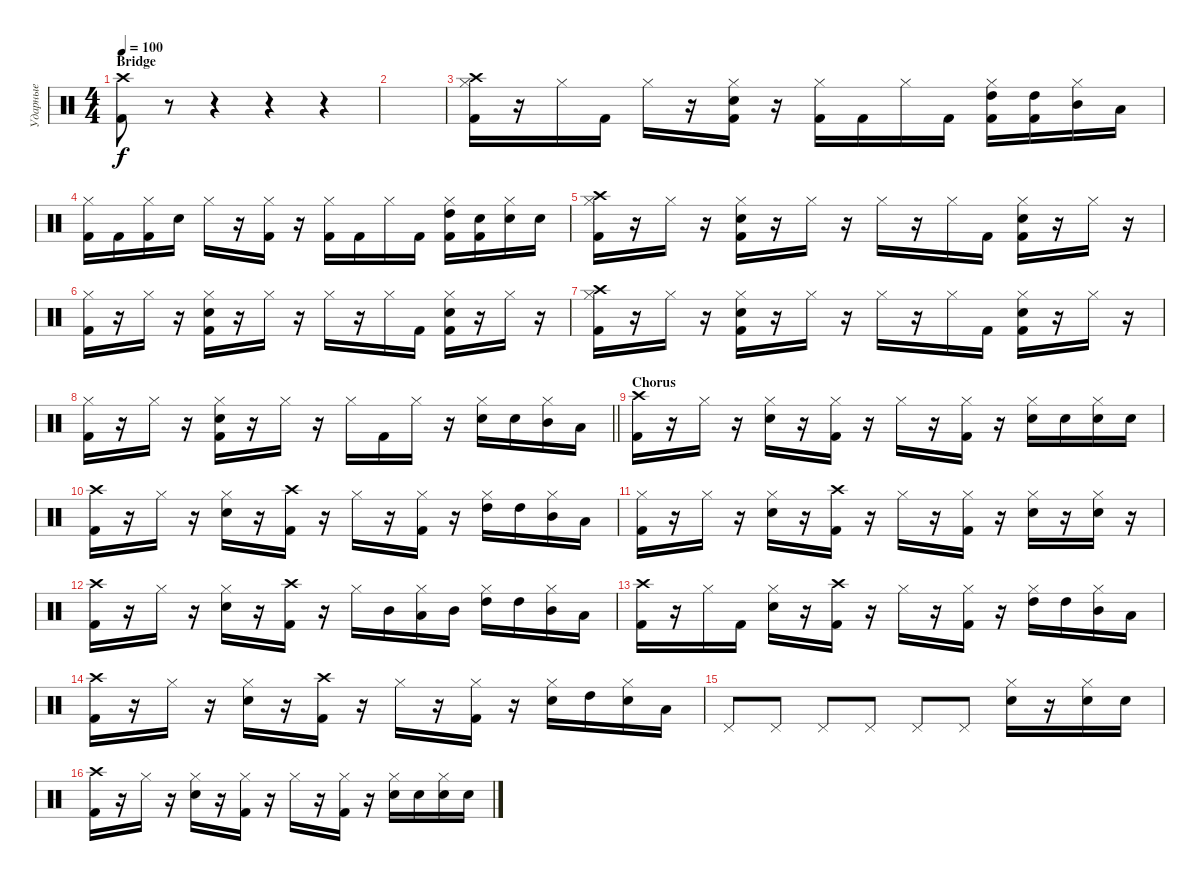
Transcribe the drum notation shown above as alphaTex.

\track ("Ударные" "Ударные") {instrument percussion}
\staff {score}
\articulation defaults
\ts (4 4)
\section ("" "Bridge")
\tempo 100
\clef neutral
\ks c
("Kick (hit) 2" "Crash high (hit)").8{dy f} r.8 r.4 r.4 r.4 |
|
("Hi-Hat (closed)" "Crash high (hit)" "Kick (hit) 2").16 r.16 "Hi-Hat (closed)".16 "Kick (hit) 2".16 "Hi-Hat (closed)".16 r.16 ("Hi-Hat (closed)" "Kick (hit) 2" "Electric Snare (hit)").16 r.16 ("Hi-Hat (closed)" "Kick (hit) 2").16 "Kick (hit) 2".16 "Hi-Hat (closed)".16 "Kick (hit) 2".16 ("Hi-Hat (closed)" "Kick (hit) 2" "High Tom (hit)").16 ("Kick (hit) 2" "High Tom (hit)").16 ("Hi-Hat (closed)" "Mid Tom (hit)").16 "Low Tom (hit)".16 |
("Hi-Hat (closed)" "Kick (hit) 2").16 "Kick (hit) 2".16 ("Hi-Hat (closed)" "Kick (hit) 2").16 "Electric Snare (hit)".16 "Hi-Hat (closed)".16 r.16 ("Hi-Hat (closed)" "Kick (hit) 2").16 r.16 ("Hi-Hat (closed)" "Kick (hit) 2").16 "Kick (hit) 2".16 "Hi-Hat (closed)".16 "Kick (hit) 2".16 ("Hi-Hat (closed)" "Kick (hit) 2" "High Tom (hit)").16 ("Kick (hit) 2" "Electric Snare (hit)").16 ("Hi-Hat (closed)" "Electric Snare (hit)").16 "Electric Snare (hit)".16 |
("Hi-Hat (closed)" "Kick (hit) 2" "Crash high (hit)").16 r.16 "Hi-Hat (closed)".16 r.16 ("Hi-Hat (closed)" "Kick (hit) 2" "Electric Snare (hit)").16 r.16 "Hi-Hat (closed)".16 r.16 "Hi-Hat (closed)".16 r.16 "Hi-Hat (closed)".16 "Kick (hit) 2".16 ("Hi-Hat (closed)" "Kick (hit) 2" "Electric Snare (hit)").16 r.16 "Hi-Hat (closed)".16 r.16 |
("Hi-Hat (closed)" "Kick (hit) 2").16 r.16 "Hi-Hat (closed)".16 r.16 ("Hi-Hat (closed)" "Kick (hit) 2" "Electric Snare (hit)").16 r.16 "Hi-Hat (closed)".16 r.16 "Hi-Hat (closed)".16 r.16 "Hi-Hat (closed)".16 "Kick (hit) 2".16 ("Hi-Hat (closed)" "Kick (hit) 2" "Electric Snare (hit)").16 r.16 "Hi-Hat (closed)".16 r.16 |
("Hi-Hat (closed)" "Kick (hit) 2" "Crash high (hit)").16 r.16 "Hi-Hat (closed)".16 r.16 ("Hi-Hat (closed)" "Kick (hit) 2" "Electric Snare (hit)").16 r.16 "Hi-Hat (closed)".16 r.16 "Hi-Hat (closed)".16 r.16 "Hi-Hat (closed)".16 "Kick (hit) 2".16 ("Hi-Hat (closed)" "Kick (hit) 2" "Electric Snare (hit)").16 r.16 "Hi-Hat (closed)".16 r.16 |
\barLineRight lightlight
("Hi-Hat (closed)" "Kick (hit) 2").16 r.16 "Hi-Hat (closed)".16 r.16 ("Hi-Hat (closed)" "Kick (hit) 2" "Electric Snare (hit)").16 r.16 "Hi-Hat (closed)".16 r.16 "Hi-Hat (closed)".16 "Kick (hit) 2".16 "Hi-Hat (closed)".16 r.16 ("Hi-Hat (closed)" "Electric Snare (hit)").16 "Electric Snare (hit)".16 ("Hi-Hat (closed)" "Mid Tom (hit)").16 "Low Tom (hit)".16 |
\section ("" "Chorus")
("Crash high (hit)" "Kick (hit) 2").16 r.16 "Hi-Hat (closed)".16 r.16 ("Hi-Hat (closed)" "Electric Snare (hit)").16 r.16 ("Hi-Hat (closed)" "Kick (hit) 2").16 r.16 "Hi-Hat (closed)".16 r.16 ("Hi-Hat (closed)" "Kick (hit) 2").16 r.16 ("Hi-Hat (closed)" "Electric Snare (hit)").16 "Electric Snare (hit)".16 ("Hi-Hat (closed)" "Electric Snare (hit)").16 "Electric Snare (hit)".16 |
("Crash high (hit)" "Kick (hit) 2").16 r.16 "Hi-Hat (closed)".16 r.16 ("Hi-Hat (closed)" "Electric Snare (hit)").16 r.16 ("Crash high (hit)" "Kick (hit) 2").16 r.16 "Hi-Hat (closed)".16 r.16 ("Hi-Hat (closed)" "Kick (hit) 2").16 r.16 ("Hi-Hat (closed)" "High Tom (hit)").16 "High Tom (hit)".16 ("Hi-Hat (closed)" "Mid Tom (hit)").16 "Low Tom (hit)".16 |
("Hi-Hat (closed)" "Kick (hit) 2").16 r.16 "Hi-Hat (closed)".16 r.16 ("Hi-Hat (closed)" "Electric Snare (hit)").16 r.16 ("Crash high (hit)" "Kick (hit) 2").16 r.16 "Hi-Hat (closed)".16 r.16 ("Hi-Hat (closed)" "Kick (hit) 2").16 r.16 ("Hi-Hat (closed)" "Electric Snare (hit)").16 r.16 ("Hi-Hat (closed)" "Electric Snare (hit)").16 r.16 |
("Crash high (hit)" "Kick (hit) 2").16 r.16 "Hi-Hat (closed)".16 r.16 ("Hi-Hat (closed)" "Electric Snare (hit)").16 r.16 ("Crash high (hit)" "Kick (hit) 2").16 r.16 "Hi-Hat (closed)".16 "Mid Tom (hit)".16 ("Hi-Hat (closed)" "Low Tom (hit)").16 "Mid Tom (hit)".16 ("Hi-Hat (closed)" "High Tom (hit)").16 "High Tom (hit)".16 ("Hi-Hat (closed)" "Mid Tom (hit)").16 "Low Tom (hit)".16 |
("Crash high (hit)" "Kick (hit) 2").16 r.16 "Hi-Hat (closed)".16 "Kick (hit) 2".16 ("Hi-Hat (closed)" "Electric Snare (hit)").16 r.16 ("Crash high (hit)" "Kick (hit) 2").16 r.16 "Hi-Hat (closed)".16 r.16 ("Hi-Hat (closed)" "Kick (hit) 2").16 r.16 ("Hi-Hat (closed)" "High Tom (hit)").16 "High Tom (hit)".16 ("Hi-Hat (closed)" "Mid Tom (hit)").16 "Low Tom (hit)".16 |
("Crash high (hit)" "Kick (hit) 2").16 r.16 "Hi-Hat (closed)".16 r.16 ("Hi-Hat (closed)" "Electric Snare (hit)").16 r.16 ("Crash high (hit)" "Kick (hit) 2").16 r.16 "Hi-Hat (closed)".16 r.16 ("Hi-Hat (closed)" "Kick (hit) 2").16 r.16 ("Hi-Hat (closed)" "Electric Snare (hit)").16 "High Tom (hit)".16 ("Hi-Hat (closed)" "Electric Snare (hit)").16 "Low Tom (hit)".16 |
"Pedal Hi-Hat (hit)".8 "Pedal Hi-Hat (hit)".8 "Pedal Hi-Hat (hit)".8 "Pedal Hi-Hat (hit)".8 "Pedal Hi-Hat (hit)".8 "Pedal Hi-Hat (hit)".8 ("Hi-Hat (closed)" "Electric Snare (hit)").16 r.16 ("Hi-Hat (closed)" "Electric Snare (hit)").16 "Electric Snare (hit)".16 |
("Crash high (hit)" "Kick (hit) 2").16 r.16 "Hi-Hat (closed)".16 r.16 ("Hi-Hat (closed)" "Electric Snare (hit)").16 r.16 ("Hi-Hat (closed)" "Kick (hit) 2").16 r.16 "Hi-Hat (closed)".16 r.16 ("Hi-Hat (closed)" "Kick (hit) 2").16 r.16 ("Hi-Hat (closed)" "Electric Snare (hit)").16 "Electric Snare (hit)".16 ("Hi-Hat (closed)" "Electric Snare (hit)").16 "Electric Snare (hit)".16
